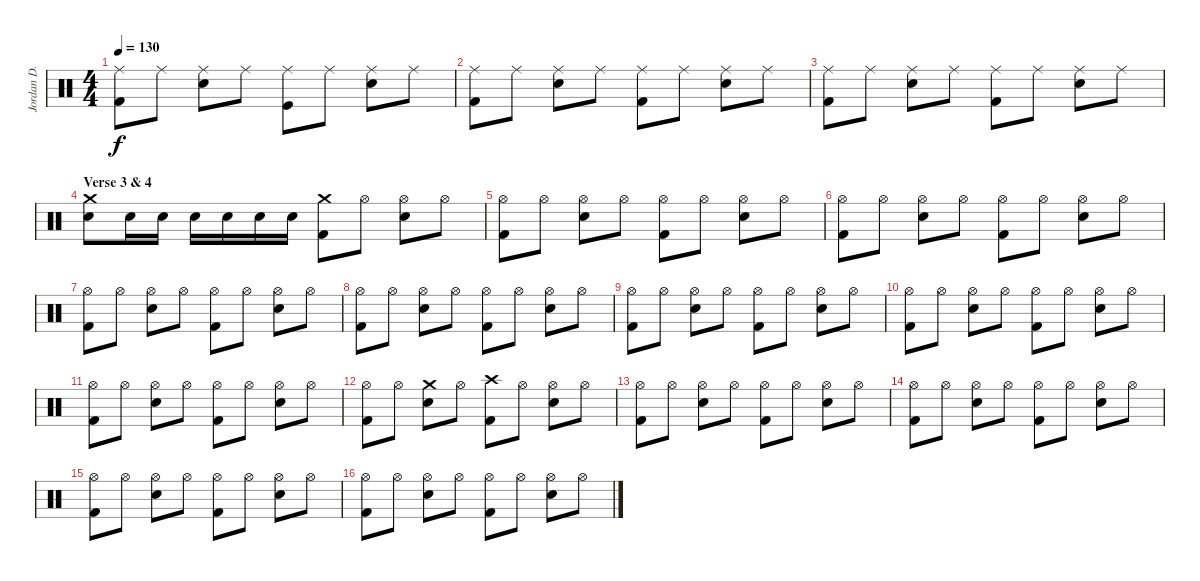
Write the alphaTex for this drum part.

\track ("Jordan D. Samolesky" "Jordan D. ") {instrument percussion}
\staff {score}
\articulation defaults
\ts (4 4)
\tempo 130
\clef neutral
\ks c
("Ride (middle)" "Kick (hit) 2").8{dy f} "Ride (middle)".8 ("Electric Snare (hit)" "Ride (middle)").8 "Ride (middle)".8 ("Ride (middle)" "Kick (hit)").8 "Ride (middle)".8 ("Electric Snare (hit)" "Ride (middle)").8 "Ride (middle)".8 |
("Ride (middle)" "Kick (hit) 2").8 "Ride (middle)".8 ("Electric Snare (hit)" "Ride (middle)").8 "Ride (middle)".8 ("Ride (middle)" "Kick (hit) 2").8 "Ride (middle)".8 ("Electric Snare (hit)" "Ride (middle)").8 "Ride (middle)".8 |
("Ride (middle)" "Kick (hit) 2").8 "Ride (middle)".8 ("Electric Snare (hit)" "Ride (middle)").8 "Ride (middle)".8 ("Ride (middle)" "Kick (hit) 2").8 "Ride (middle)".8 ("Electric Snare (hit)" "Ride (middle)").8 "Ride (middle)".8 |
\section ("" "Verse 3 & 4")
("Crash medium (hit)" "Electric Snare (hit)").8 "Electric Snare (hit)".16 "Electric Snare (hit)".16 "Electric Snare (hit)".16 "Electric Snare (hit)".16 "Electric Snare (hit)".16 "Electric Snare (hit)".16 ("Crash medium (hit)" "Kick (hit) 2").8 "Hi-Hat (open)".8 ("Electric Snare (hit)" "Hi-Hat (open)").8 "Hi-Hat (open)".8 |
("Hi-Hat (open)" "Kick (hit) 2").8 "Hi-Hat (open)".8 ("Electric Snare (hit)" "Hi-Hat (open)").8 "Hi-Hat (open)".8 ("Hi-Hat (open)" "Kick (hit) 2").8 "Hi-Hat (open)".8 ("Electric Snare (hit)" "Hi-Hat (open)").8 "Hi-Hat (open)".8 |
("Hi-Hat (open)" "Kick (hit) 2").8 "Hi-Hat (open)".8 ("Electric Snare (hit)" "Hi-Hat (open)").8 "Hi-Hat (open)".8 ("Hi-Hat (open)" "Kick (hit) 2").8 "Hi-Hat (open)".8 ("Electric Snare (hit)" "Hi-Hat (open)").8 "Hi-Hat (open)".8 |
("Hi-Hat (open)" "Kick (hit) 2").8 "Hi-Hat (open)".8 ("Electric Snare (hit)" "Hi-Hat (open)").8 "Hi-Hat (open)".8 ("Hi-Hat (open)" "Kick (hit) 2").8 "Hi-Hat (open)".8 ("Electric Snare (hit)" "Hi-Hat (open)").8 "Hi-Hat (open)".8 |
("Hi-Hat (open)" "Kick (hit) 2").8 "Hi-Hat (open)".8 ("Electric Snare (hit)" "Hi-Hat (open)").8 "Hi-Hat (open)".8 ("Hi-Hat (open)" "Kick (hit) 2").8 "Hi-Hat (open)".8 ("Electric Snare (hit)" "Hi-Hat (open)").8 "Hi-Hat (open)".8 |
("Hi-Hat (open)" "Kick (hit) 2").8 "Hi-Hat (open)".8 ("Electric Snare (hit)" "Hi-Hat (open)").8 "Hi-Hat (open)".8 ("Hi-Hat (open)" "Kick (hit) 2").8 "Hi-Hat (open)".8 ("Electric Snare (hit)" "Hi-Hat (open)").8 "Hi-Hat (open)".8 |
("Hi-Hat (open)" "Kick (hit) 2").8 "Hi-Hat (open)".8 ("Electric Snare (hit)" "Hi-Hat (open)").8 "Hi-Hat (open)".8 ("Hi-Hat (open)" "Kick (hit) 2").8 "Hi-Hat (open)".8 ("Electric Snare (hit)" "Hi-Hat (open)").8 "Hi-Hat (open)".8 |
("Hi-Hat (open)" "Kick (hit) 2").8 "Hi-Hat (open)".8 ("Electric Snare (hit)" "Hi-Hat (open)").8 "Hi-Hat (open)".8 ("Hi-Hat (open)" "Kick (hit) 2").8 "Hi-Hat (open)".8 ("Electric Snare (hit)" "Hi-Hat (open)").8 "Hi-Hat (open)".8 |
("Hi-Hat (open)" "Kick (hit) 2").8 "Hi-Hat (open)".8 ("Crash medium (hit)" "Electric Snare (hit)").8 "Hi-Hat (open)".8 ("Crash high (hit)" "Kick (hit) 2").8 "Hi-Hat (open)".8 ("Electric Snare (hit)" "Hi-Hat (open)").8 "Hi-Hat (open)".8 |
("Hi-Hat (open)" "Kick (hit) 2").8 "Hi-Hat (open)".8 ("Electric Snare (hit)" "Hi-Hat (open)").8 "Hi-Hat (open)".8 ("Hi-Hat (open)" "Kick (hit) 2").8 "Hi-Hat (open)".8 ("Electric Snare (hit)" "Hi-Hat (open)").8 "Hi-Hat (open)".8 |
("Hi-Hat (open)" "Kick (hit) 2").8 "Hi-Hat (open)".8 ("Electric Snare (hit)" "Hi-Hat (open)").8 "Hi-Hat (open)".8 ("Hi-Hat (open)" "Kick (hit) 2").8 "Hi-Hat (open)".8 ("Electric Snare (hit)" "Hi-Hat (open)").8 "Hi-Hat (open)".8 |
("Hi-Hat (open)" "Kick (hit) 2").8 "Hi-Hat (open)".8 ("Electric Snare (hit)" "Hi-Hat (open)").8 "Hi-Hat (open)".8 ("Hi-Hat (open)" "Kick (hit) 2").8 "Hi-Hat (open)".8 ("Electric Snare (hit)" "Hi-Hat (open)").8 "Hi-Hat (open)".8 |
("Hi-Hat (open)" "Kick (hit) 2").8 "Hi-Hat (open)".8 ("Electric Snare (hit)" "Hi-Hat (open)").8 "Hi-Hat (open)".8 ("Hi-Hat (open)" "Kick (hit) 2").8 "Hi-Hat (open)".8 ("Electric Snare (hit)" "Hi-Hat (open)").8 "Hi-Hat (open)".8
